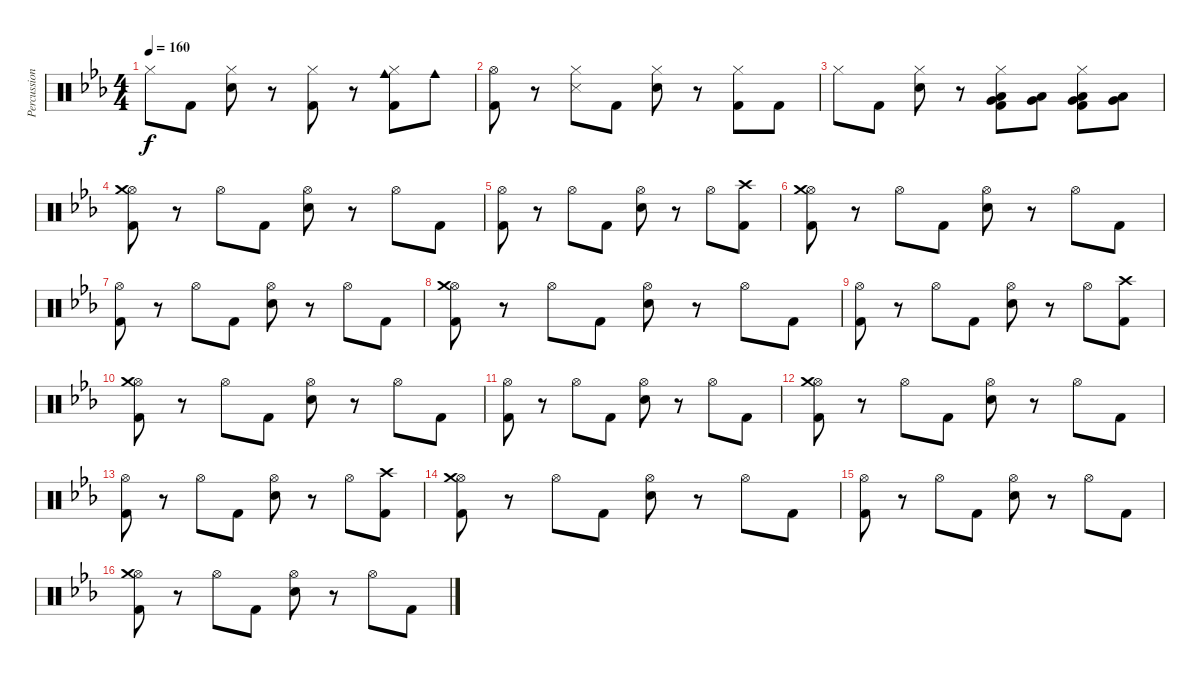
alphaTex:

\track ("Percussion" "Percussion") {instrument percussion}
\staff {score}
\articulation defaults
\ts (4 4)
\tempo 160
\clef neutral
\ks cminor "Hi-Hat (closed)".8{dy f} "Kick (hit) 2".8
("Hi-Hat (closed)" "Snare (hit) 2").8 r.8 ("Hi-Hat (closed)" "Kick (hit) 2").8 r.8 ("Cowbell medium (hit)" "Hi-Hat (closed)" "Kick (hit) 2").8 "Cowbell medium (hit)".8 |
("Hi-Hat (open)" "Kick (hit) 2").8 r.8 ("Hi-Hat (closed)" "Snare (side stick) 3").8 "Kick (hit) 2".8 ("Hi-Hat (closed)" "Snare (hit) 2").8 r.8 ("Hi-Hat (closed)" "Kick (hit) 2").8 "Kick (hit) 2".8 |
"Hi-Hat (closed)".8 "Kick (hit) 2".8 ("Hi-Hat (closed)" "Snare (hit) 2").8 r.8 ("Hi-Hat (closed)" "Kick (hit) 2" "Low Floor Tom (hit)" "Very Low Tom (hit)").8 ("Low Floor Tom (hit)" "Very Low Tom (hit)").8 ("Hi-Hat (closed)" "Kick (hit) 2" "Low Floor Tom (hit)" "Very Low Tom (hit)").8 ("Low Floor Tom (hit)" "Very Low Tom (hit)").8 |
("Hi-Hat (open)" "Kick (hit) 2" "Crash medium (hit)").8 r.8 "Hi-Hat (open)".8 "Kick (hit) 2".8 ("Hi-Hat (open)" "Snare (hit) 2").8 r.8 "Hi-Hat (open)".8 "Kick (hit) 2".8 |
("Hi-Hat (open)" "Kick (hit) 2").8 r.8 "Hi-Hat (open)".8 "Kick (hit) 2".8 ("Hi-Hat (open)" "Snare (hit) 2").8 r.8 "Hi-Hat (open)".8 ("Kick (hit) 2" "Crash high (hit)").8 |
("Hi-Hat (open)" "Kick (hit) 2" "Crash medium (hit)").8 r.8 "Hi-Hat (open)".8 "Kick (hit) 2".8 ("Hi-Hat (open)" "Snare (hit) 2").8 r.8 "Hi-Hat (open)".8 "Kick (hit) 2".8 |
("Hi-Hat (open)" "Kick (hit) 2").8 r.8 "Hi-Hat (open)".8 "Kick (hit) 2".8 ("Hi-Hat (open)" "Snare (hit) 2").8 r.8 "Hi-Hat (open)".8 "Kick (hit) 2".8 |
("Hi-Hat (open)" "Kick (hit) 2" "Crash medium (hit)").8 r.8 "Hi-Hat (open)".8 "Kick (hit) 2".8 ("Hi-Hat (open)" "Snare (hit) 2").8 r.8 "Hi-Hat (open)".8 "Kick (hit) 2".8 |
("Hi-Hat (open)" "Kick (hit) 2").8 r.8 "Hi-Hat (open)".8 "Kick (hit) 2".8 ("Hi-Hat (open)" "Snare (hit) 2").8 r.8 "Hi-Hat (open)".8 ("Kick (hit) 2" "Crash high (hit)").8 |
("Hi-Hat (open)" "Kick (hit) 2" "Crash medium (hit)").8 r.8 "Hi-Hat (open)".8 "Kick (hit) 2".8 ("Hi-Hat (open)" "Snare (hit) 2").8 r.8 "Hi-Hat (open)".8 "Kick (hit) 2".8 |
("Hi-Hat (open)" "Kick (hit) 2").8 r.8 "Hi-Hat (open)".8 "Kick (hit) 2".8 ("Hi-Hat (open)" "Snare (hit) 2").8 r.8 "Hi-Hat (open)".8 "Kick (hit) 2".8 |
("Hi-Hat (open)" "Kick (hit) 2" "Crash medium (hit)").8 r.8 "Hi-Hat (open)".8 "Kick (hit) 2".8 ("Hi-Hat (open)" "Snare (hit) 2").8 r.8 "Hi-Hat (open)".8 "Kick (hit) 2".8 |
("Hi-Hat (open)" "Kick (hit) 2").8 r.8 "Hi-Hat (open)".8 "Kick (hit) 2".8 ("Hi-Hat (open)" "Snare (hit) 2").8 r.8 "Hi-Hat (open)".8 ("Kick (hit) 2" "Crash high (hit)").8 |
("Hi-Hat (open)" "Kick (hit) 2" "Crash medium (hit)").8 r.8 "Hi-Hat (open)".8 "Kick (hit) 2".8 ("Hi-Hat (open)" "Snare (hit) 2").8 r.8 "Hi-Hat (open)".8 "Kick (hit) 2".8 |
("Hi-Hat (open)" "Kick (hit) 2").8 r.8 "Hi-Hat (open)".8 "Kick (hit) 2".8 ("Hi-Hat (open)" "Snare (hit) 2").8 r.8 "Hi-Hat (open)".8 "Kick (hit) 2".8 |
("Hi-Hat (open)" "Kick (hit) 2" "Crash medium (hit)").8 r.8 "Hi-Hat (open)".8 "Kick (hit) 2".8 ("Hi-Hat (open)" "Snare (hit) 2").8 r.8 "Hi-Hat (open)".8 "Kick (hit) 2".8
